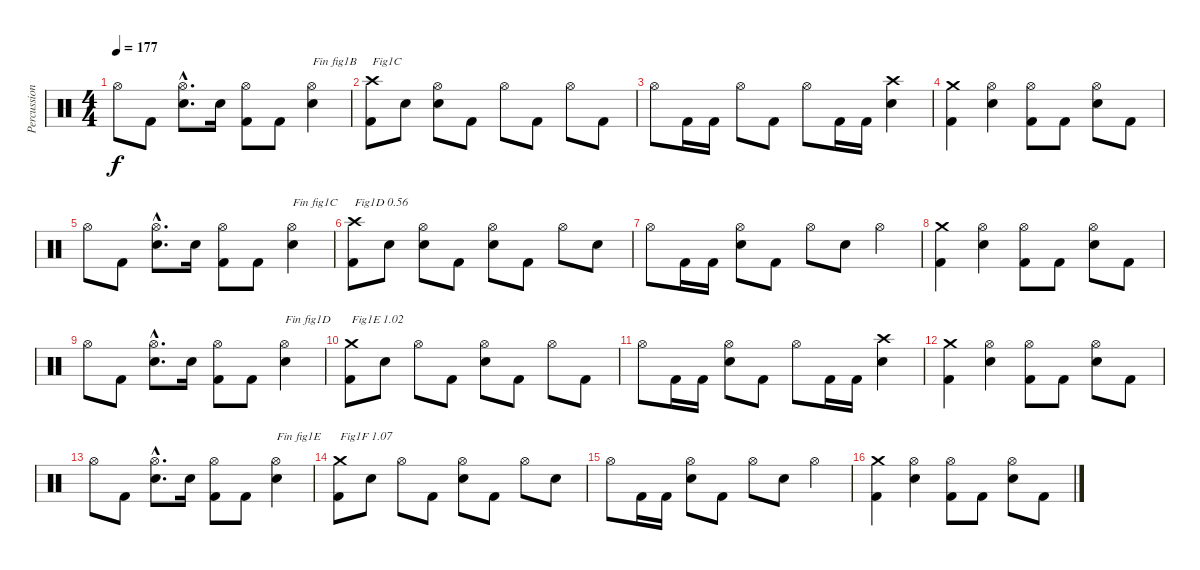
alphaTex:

\track ("Percussions" "Percussion") {instrument percussion}
\staff {score}
\articulation defaults
\ts (4 4)
\tempo 177
\clef neutral
\ks c "Hi-Hat (open)".8{dy f} "Kick (hit) 2".8
("Electric Snare (hit)"{hac} "Hi-Hat (open)"{hac}).8{d} "Electric Snare (hit)".16 ("Kick (hit) 2" "Hi-Hat (open)").8 "Kick (hit) 2".8 ("Electric Snare (hit)" "Hi-Hat (open)").4{txt "Fin fig1B"} |
("Kick (hit) 2" "Crash high (hit)").8{txt "Fig1C"} "Electric Snare (hit)".8 ("Electric Snare (hit)" "Hi-Hat (open)").8 "Kick (hit) 2".8 "Hi-Hat (open)".8 "Kick (hit) 2".8 "Hi-Hat (open)".8 "Kick (hit) 2".8 |
"Hi-Hat (open)".8 "Kick (hit) 2".16 "Kick (hit) 2".16 "Hi-Hat (open)".8 "Kick (hit) 2".8 "Hi-Hat (open)".8 "Kick (hit) 2".16 "Kick (hit) 2".16 ("Electric Snare (hit)" "Crash high (hit)").4 |
("Kick (hit) 2" "Crash medium (hit)").4 ("Electric Snare (hit)" "Hi-Hat (open)").4 ("Kick (hit) 2" "Hi-Hat (open)").8 "Kick (hit) 2".8 ("Electric Snare (hit)" "Hi-Hat (open)").8 "Kick (hit) 2".8 |
"Hi-Hat (open)".8 "Kick (hit) 2".8 ("Electric Snare (hit)"{hac} "Hi-Hat (open)"{hac}).8{d} "Electric Snare (hit)".16 ("Kick (hit) 2" "Hi-Hat (open)").8 "Kick (hit) 2".8 ("Electric Snare (hit)" "Hi-Hat (open)").4{txt "Fin fig1C"} |
("Kick (hit) 2" "Crash high (hit)").8{txt "Fig1D 0.56"} "Electric Snare (hit)".8 ("Electric Snare (hit)" "Hi-Hat (open)").8 "Kick (hit) 2".8 ("Electric Snare (hit)" "Hi-Hat (open)").8 "Kick (hit) 2".8 "Hi-Hat (open)".8 "Electric Snare (hit)".8 |
"Hi-Hat (open)".8 "Kick (hit) 2".16 "Kick (hit) 2".16 ("Electric Snare (hit)" "Hi-Hat (open)").8 "Kick (hit) 2".8 "Hi-Hat (open)".8 "Electric Snare (hit)".8 "Hi-Hat (open)".4 |
("Kick (hit) 2" "Crash medium (hit)").4 ("Electric Snare (hit)" "Hi-Hat (open)").4 ("Kick (hit) 2" "Hi-Hat (open)").8 "Kick (hit) 2".8 ("Electric Snare (hit)" "Hi-Hat (open)").8 "Kick (hit) 2".8 |
"Hi-Hat (open)".8 "Kick (hit) 2".8 ("Electric Snare (hit)"{hac} "Hi-Hat (open)"{hac}).8{d} "Electric Snare (hit)".16 ("Kick (hit) 2" "Hi-Hat (open)").8 "Kick (hit) 2".8 ("Electric Snare (hit)" "Hi-Hat (open)").4{txt "Fin fig1D"} |
("Kick (hit) 2" "Crash medium (hit)").8{txt "Fig1E 1.02"} "Electric Snare (hit)".8 "Hi-Hat (open)".8 "Kick (hit) 2".8 ("Electric Snare (hit)" "Hi-Hat (open)").8 "Kick (hit) 2".8 "Hi-Hat (open)".8 "Kick (hit) 2".8 |
"Hi-Hat (open)".8 "Kick (hit) 2".16 "Kick (hit) 2".16 ("Electric Snare (hit)" "Hi-Hat (open)").8 "Kick (hit) 2".8 "Hi-Hat (open)".8 "Kick (hit) 2".16 "Kick (hit) 2".16 ("Electric Snare (hit)" "Crash high (hit)").4 |
("Kick (hit) 2" "Crash medium (hit)").4 ("Electric Snare (hit)" "Hi-Hat (open)").4 ("Kick (hit) 2" "Hi-Hat (open)").8 "Kick (hit) 2".8 ("Electric Snare (hit)" "Hi-Hat (open)").8 "Kick (hit) 2".8 |
"Hi-Hat (open)".8 "Kick (hit) 2".8 ("Electric Snare (hit)"{hac} "Hi-Hat (open)"{hac}).8{d} "Electric Snare (hit)".16 ("Kick (hit) 2" "Hi-Hat (open)").8 "Kick (hit) 2".8 ("Electric Snare (hit)" "Hi-Hat (open)").4{txt "Fin fig1E"} |
("Kick (hit) 2" "Crash medium (hit)").8{txt "Fig1F 1.07"} "Electric Snare (hit)".8 "Hi-Hat (open)".8 "Kick (hit) 2".8 ("Electric Snare (hit)" "Hi-Hat (open)").8 "Kick (hit) 2".8 "Hi-Hat (open)".8 "Electric Snare (hit)".8 |
"Hi-Hat (open)".8 "Kick (hit) 2".16 "Kick (hit) 2".16 ("Electric Snare (hit)" "Hi-Hat (open)").8 "Kick (hit) 2".8 "Hi-Hat (open)".8 "Electric Snare (hit)".8 "Hi-Hat (open)".4 |
("Kick (hit) 2" "Crash medium (hit)").4 ("Electric Snare (hit)" "Hi-Hat (open)").4 ("Kick (hit) 2" "Hi-Hat (open)").8 "Kick (hit) 2".8 ("Electric Snare (hit)" "Hi-Hat (open)").8 "Kick (hit) 2".8
